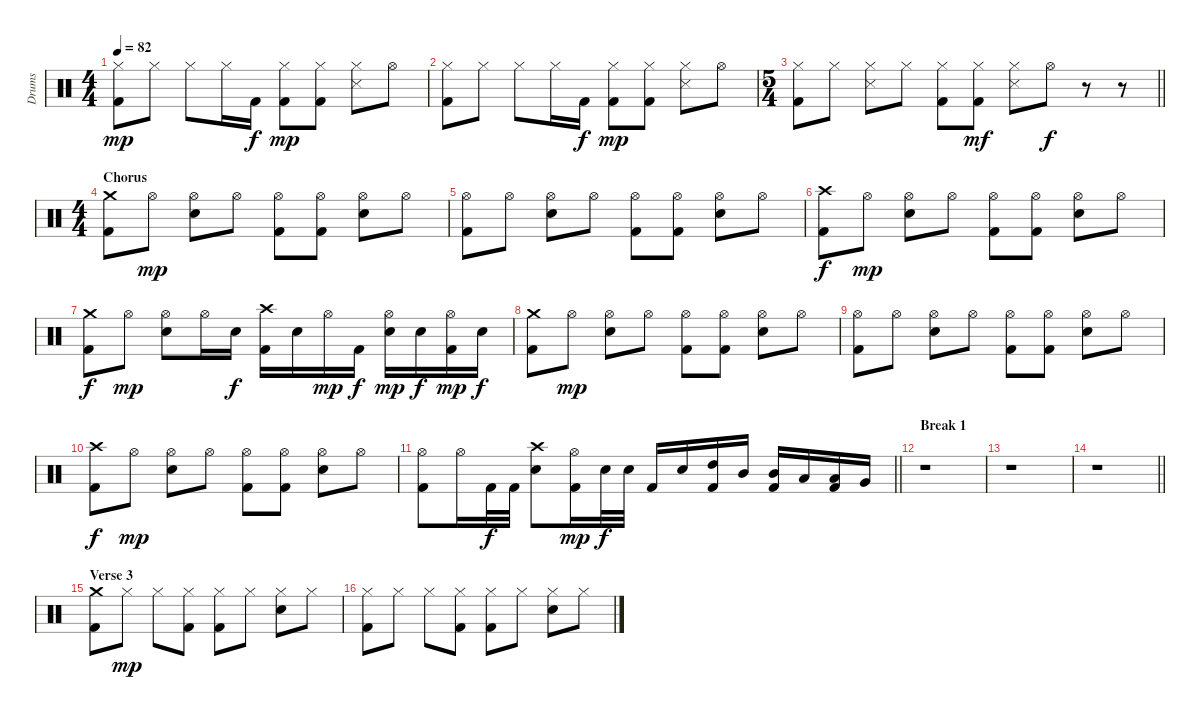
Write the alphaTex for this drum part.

\track ("Drums" "Drums") {instrument percussion}
\staff {score}
\articulation defaults
\ts (4 4)
\tempo 82
\clef neutral
\ks c
("Hi-Hat (closed)" "Kick (hit) 2").8{dy mp} "Hi-Hat (closed)".8 "Hi-Hat (closed)".8 "Hi-Hat (closed)".16 "Kick (hit) 2".16{dy f} ("Hi-Hat (closed)" "Kick (hit) 2").8{dy mp} ("Hi-Hat (closed)" "Kick (hit) 2").8 ("Hi-Hat (closed)" "Snare (side stick) 3").8 "Hi-Hat (open)".8 |
("Hi-Hat (closed)" "Kick (hit) 2").8 "Hi-Hat (closed)".8 "Hi-Hat (closed)".8 "Hi-Hat (closed)".16 "Kick (hit) 2".16{dy f} ("Hi-Hat (closed)" "Kick (hit) 2").8{dy mp} ("Hi-Hat (closed)" "Kick (hit) 2").8 ("Hi-Hat (closed)" "Snare (side stick) 3").8 "Hi-Hat (open)".8 |
\ts (5 4)
\barLineRight lightlight
("Hi-Hat (closed)" "Kick (hit) 2").8 "Hi-Hat (closed)".8 ("Hi-Hat (closed)" "Snare (side stick) 3").8 "Hi-Hat (closed)".8 ("Hi-Hat (closed)" "Kick (hit) 2").8 ("Hi-Hat (closed)" "Kick (hit) 2").8{dy mf} ("Hi-Hat (closed)" "Snare (side stick) 3").8 "Hi-Hat (open)".8{dy f} r.8 r.8 |
\ts (4 4)
\section ("" "Chorus")
("Crash medium (hit)" "Kick (hit) 2").8 "Hi-Hat (open)".8{dy mp} ("Hi-Hat (open)" "Snare (hit) 2").8 "Hi-Hat (open)".8 ("Hi-Hat (open)" "Kick (hit) 2").8 ("Hi-Hat (open)" "Kick (hit) 2").8 ("Hi-Hat (open)" "Snare (hit) 2").8 "Hi-Hat (open)".8 |
("Hi-Hat (open)" "Kick (hit) 2").8 "Hi-Hat (open)".8 ("Hi-Hat (open)" "Snare (hit) 2").8 "Hi-Hat (open)".8 ("Hi-Hat (open)" "Kick (hit) 2").8 ("Hi-Hat (open)" "Kick (hit) 2").8 ("Hi-Hat (open)" "Snare (hit) 2").8 "Hi-Hat (open)".8 |
("Crash high (hit)" "Kick (hit) 2").8{dy f} "Hi-Hat (open)".8{dy mp} ("Hi-Hat (open)" "Snare (hit) 2").8 "Hi-Hat (open)".8 ("Hi-Hat (open)" "Kick (hit) 2").8 ("Hi-Hat (open)" "Kick (hit) 2").8 ("Hi-Hat (open)" "Snare (hit) 2").8 "Hi-Hat (open)".8 |
("Crash medium (hit)" "Kick (hit) 2").8{dy f} "Hi-Hat (open)".8{dy mp} ("Hi-Hat (open)" "Snare (hit) 2").8 "Hi-Hat (open)".16 "Snare (hit) 2".16{dy f} ("Crash high (hit)" "Kick (hit) 2").16 "Snare (hit) 2".16 "Hi-Hat (open)".16{dy mp} "Kick (hit) 2".16{dy f} ("Hi-Hat (open)" "Snare (hit) 2").16{dy mp} "Snare (hit) 2".16{dy f} ("Hi-Hat (open)" "Kick (hit) 2").16{dy mp} "Snare (hit) 2".16{dy f} |
("Crash medium (hit)" "Kick (hit) 2").8 "Hi-Hat (open)".8{dy mp} ("Hi-Hat (open)" "Snare (hit) 2").8 "Hi-Hat (open)".8 ("Hi-Hat (open)" "Kick (hit) 2").8 ("Hi-Hat (open)" "Kick (hit) 2").8 ("Hi-Hat (open)" "Snare (hit) 2").8 "Hi-Hat (open)".8 |
("Hi-Hat (open)" "Kick (hit) 2").8 "Hi-Hat (open)".8 ("Hi-Hat (open)" "Snare (hit) 2").8 "Hi-Hat (open)".8 ("Hi-Hat (open)" "Kick (hit) 2").8 ("Hi-Hat (open)" "Kick (hit) 2").8 ("Hi-Hat (open)" "Snare (hit) 2").8 "Hi-Hat (open)".8 |
("Crash high (hit)" "Kick (hit) 2").8{dy f} "Hi-Hat (open)".8{dy mp} ("Hi-Hat (open)" "Snare (hit) 2").8 "Hi-Hat (open)".8 ("Hi-Hat (open)" "Kick (hit) 2").8 ("Hi-Hat (open)" "Kick (hit) 2").8 ("Hi-Hat (open)" "Snare (hit) 2").8 "Hi-Hat (open)".8 |
\barLineRight lightlight
("Hi-Hat (open)" "Kick (hit) 2").8 "Hi-Hat (open)".16 "Kick (hit) 2".32{dy f} "Kick (hit) 2".32 ("Crash high (hit)" "Snare (hit) 2").8 ("Hi-Hat (open)" "Kick (hit) 2").16{dy mp} "Snare (hit) 2".32{dy f} "Snare (hit) 2".32 "Kick (hit) 2".16 "Snare (hit) 2".16 ("High Tom (hit)" "Kick (hit) 2").16 "Mid Tom (hit)".16 ("Mid Tom (hit)" "Kick (hit) 2").16 "Low Tom (hit)".16 ("Low Tom (hit)" "Kick (hit) 2").16 "Very Low Tom (hit)".16 |
\section ("" "Break 1")
r.1 |
r.1 |
\barLineRight lightlight
r.1 |
\section ("" "Verse 3")
("Crash medium (hit)" "Kick (hit) 2").8 "Hi-Hat (closed)".8{dy mp} "Hi-Hat (closed)".8 ("Hi-Hat (closed)" "Kick (hit) 2").8 ("Hi-Hat (closed)" "Kick (hit) 2").8 "Hi-Hat (closed)".8 ("Hi-Hat (closed)" "Snare (hit) 2").8 "Hi-Hat (closed)".8 |
("Hi-Hat (closed)" "Kick (hit) 2").8 "Hi-Hat (closed)".8 "Hi-Hat (closed)".8 ("Hi-Hat (closed)" "Kick (hit) 2").8 ("Hi-Hat (closed)" "Kick (hit) 2").8 "Hi-Hat (closed)".8 ("Hi-Hat (closed)" "Snare (hit) 2").8 "Hi-Hat (closed)".8
